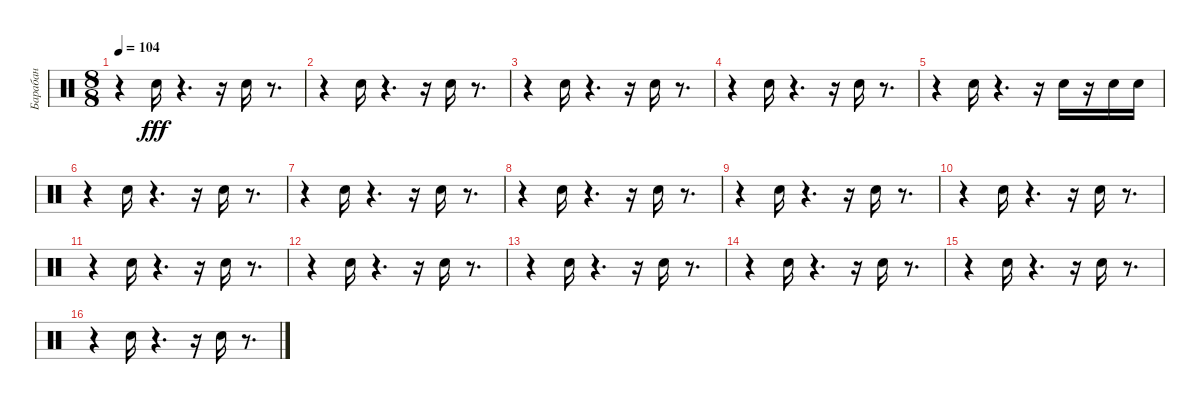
\track ("Барабан" "Барабан") {instrument percussion}
\staff {score}
\articulation defaults
\ts (8 8)
\tempo 104
\clef neutral
\ks c
r.4{dy fff} "Snare (hit) 2".16 r.4{d} r.16 "Snare (hit) 2".16 r.8{d} |
r.4 "Snare (hit) 2".16 r.4{d} r.16 "Snare (hit) 2".16 r.8{d} |
r.4 "Snare (hit) 2".16 r.4{d} r.16 "Snare (hit) 2".16 r.8{d} |
r.4 "Snare (hit) 2".16 r.4{d} r.16 "Snare (hit) 2".16 r.8{d} |
r.4 "Snare (hit) 2".16 r.4{d} r.16 "Snare (hit) 2".16 r.16 "Snare (hit) 2".16 "Snare (hit) 2".16 |
r.4 "Snare (hit) 2".16 r.4{d} r.16 "Snare (hit) 2".16 r.8{d} |
r.4 "Snare (hit) 2".16 r.4{d} r.16 "Snare (hit) 2".16 r.8{d} |
r.4 "Snare (hit) 2".16 r.4{d} r.16 "Snare (hit) 2".16 r.8{d} |
r.4 "Snare (hit) 2".16 r.4{d} r.16 "Snare (hit) 2".16 r.8{d} |
r.4 "Snare (hit) 2".16 r.4{d} r.16 "Snare (hit) 2".16 r.8{d} |
r.4 "Snare (hit) 2".16 r.4{d} r.16 "Snare (hit) 2".16 r.8{d} |
r.4 "Snare (hit) 2".16 r.4{d} r.16 "Snare (hit) 2".16 r.8{d} |
r.4 "Snare (hit) 2".16 r.4{d} r.16 "Snare (hit) 2".16 r.8{d} |
r.4 "Snare (hit) 2".16 r.4{d} r.16 "Snare (hit) 2".16 r.8{d} |
r.4 "Snare (hit) 2".16 r.4{d} r.16 "Snare (hit) 2".16 r.8{d} |
r.4 "Snare (hit) 2".16 r.4{d} r.16 "Snare (hit) 2".16 r.8{d}
